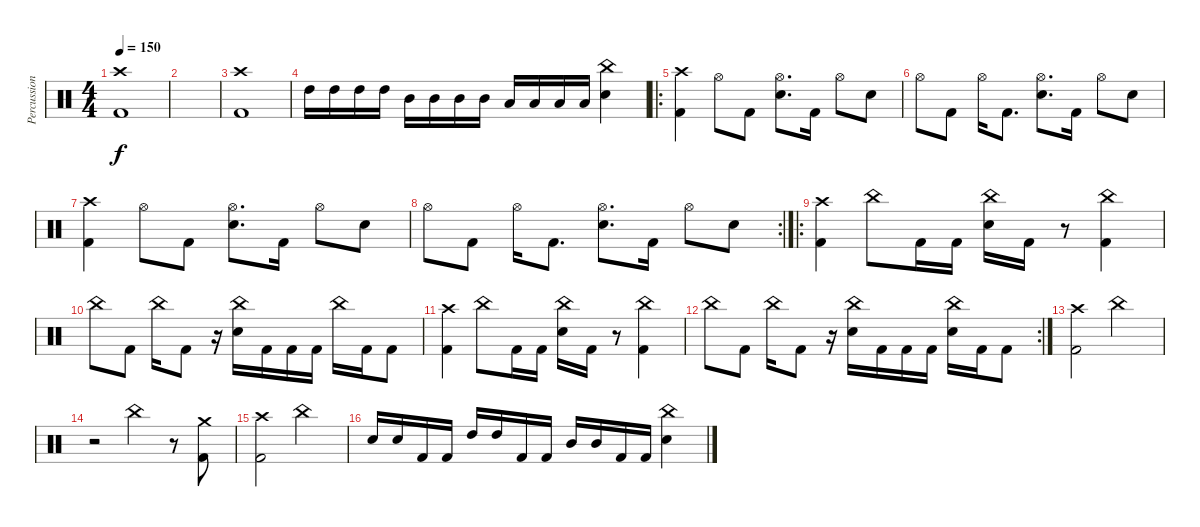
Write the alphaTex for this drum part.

\track ("Percussion" "Percussion") {instrument percussion}
\staff {score}
\articulation defaults
\ts (4 4)
\tempo 150
\clef neutral
\ks c
("Crash high (hit)" "Kick (hit) 2").1{dy f} |
|
("Crash high (hit)" "Kick (hit) 2").1 |
"High Tom (hit)".16 "High Tom (hit)".16 "High Tom (hit)".16 "High Tom (hit)".16 "Mid Tom (hit)".16 "Mid Tom (hit)".16 "Mid Tom (hit)".16 "Mid Tom (hit)".16 "Low Tom (hit)".16 "Low Tom (hit)".16 "Low Tom (hit)".16 "Low Tom (hit)".16 ("China (hit)" "Electric Snare (hit)").4 |
\ro
("Crash high (hit)" "Kick (hit) 2").4 "Hi-Hat (open)".8 "Kick (hit) 2".8 ("Hi-Hat (open)" "Electric Snare (hit)").8{d} "Kick (hit) 2".16 "Hi-Hat (open)".8 "Electric Snare (hit)".8 |
"Hi-Hat (open)".8 "Kick (hit) 2".8 "Hi-Hat (open)".16 "Kick (hit) 2".8{d} ("Hi-Hat (open)" "Electric Snare (hit)").8{d} "Kick (hit) 2".16 "Hi-Hat (open)".8 "Electric Snare (hit)".8 |
("Crash high (hit)" "Kick (hit) 2").4 "Hi-Hat (open)".8 "Kick (hit) 2".8 ("Hi-Hat (open)" "Electric Snare (hit)").8{d} "Kick (hit) 2".16 "Hi-Hat (open)".8 "Electric Snare (hit)".8 |
\rc 2 "Hi-Hat (open)".8 "Kick (hit) 2".8 "Hi-Hat (open)".16 "Kick (hit) 2".8{d}
("Hi-Hat (open)" "Electric Snare (hit)").8{d} "Kick (hit) 2".16 "Hi-Hat (open)".8 "Electric Snare (hit)".8 |
\ro
("Crash high (hit)" "Kick (hit) 2").4 "China (hit)".8 "Kick (hit) 2".16 "Kick (hit) 2".16 ("China (hit)" "Electric Snare (hit)").16 "Kick (hit) 2".16 r.8 ("China (hit)" "Kick (hit) 2").4 |
"China (hit)".8 "Kick (hit) 2".8 "China (hit)".16 "Kick (hit) 2".8 r.16 ("China (hit)" "Electric Snare (hit)").16 "Kick (hit) 2".16 "Kick (hit) 2".16 "Kick (hit) 2".16 "China (hit)".16 "Kick (hit) 2".16 "Kick (hit) 2".8 |
("Crash high (hit)" "Kick (hit) 2").4 "China (hit)".8 "Kick (hit) 2".16 "Kick (hit) 2".16 ("China (hit)" "Electric Snare (hit)").16 "Kick (hit) 2".16 r.8 ("China (hit)" "Kick (hit) 2").4 |
\rc 2 "China (hit)".8 "Kick (hit) 2".8 "China (hit)".16 "Kick (hit) 2".8
r.16 ("China (hit)" "Electric Snare (hit)").16 "Kick (hit) 2".16 "Kick (hit) 2".16 "Kick (hit) 2".16 ("China (hit)" "Snare (hit) 2").16 "Kick (hit) 2".16 "Kick (hit) 2".8 |
("Crash high (hit)" "Kick (hit) 2").2 "China (hit)".2 |
r.2 "China (hit)".4 r.8 ("Crash medium (hit)" "Kick (hit) 2").8 |
("Crash high (hit)" "Kick (hit) 2").2 "China (hit)".2 |
"Electric Snare (hit)".16 "Electric Snare (hit)".16 "Kick (hit) 2".16 "Kick (hit) 2".16 "High Tom (hit)".16 "High Tom (hit)".16 "Kick (hit) 2".16 "Kick (hit) 2".16 "Mid Tom (hit)".16 "Mid Tom (hit)".16 "Kick (hit) 2".16 "Kick (hit) 2".16 ("China (hit)" "Electric Snare (hit)").4
